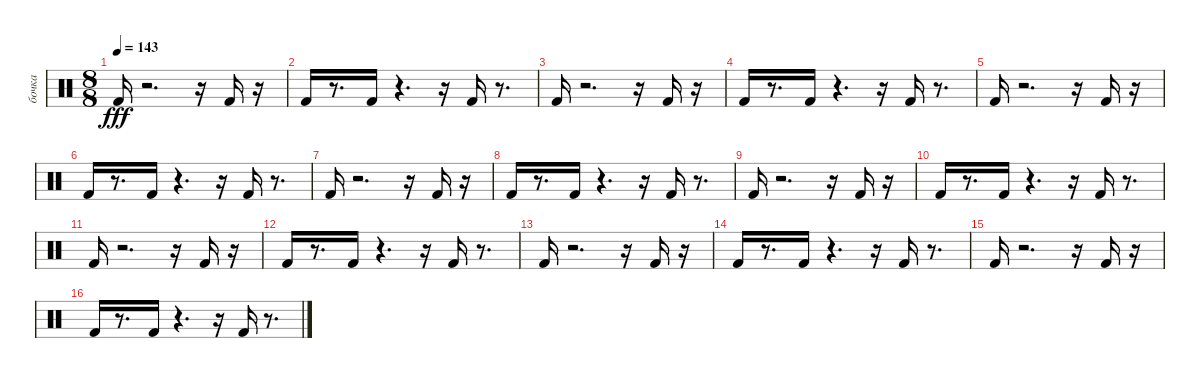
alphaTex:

\track ("бочка" "бочка") {instrument percussion}
\staff {score}
\articulation defaults
\ts (8 8)
\tempo 143
\clef neutral
\ks c "Kick (hit) 2".16{dy fff}
r.2{d} r.16 "Kick (hit) 2".16 r.16 |
"Kick (hit) 2".16 r.8{d} "Kick (hit) 2".16 r.4{d} r.16 "Kick (hit) 2".16 r.8{d} |
"Kick (hit) 2".16 r.2{d} r.16 "Kick (hit) 2".16 r.16 |
"Kick (hit) 2".16 r.8{d} "Kick (hit) 2".16 r.4{d} r.16 "Kick (hit) 2".16 r.8{d} |
"Kick (hit) 2".16 r.2{d} r.16 "Kick (hit) 2".16 r.16 |
"Kick (hit) 2".16 r.8{d} "Kick (hit) 2".16 r.4{d} r.16 "Kick (hit) 2".16 r.8{d} |
"Kick (hit) 2".16 r.2{d} r.16 "Kick (hit) 2".16 r.16 |
"Kick (hit) 2".16 r.8{d} "Kick (hit) 2".16 r.4{d} r.16 "Kick (hit) 2".16 r.8{d} |
"Kick (hit) 2".16 r.2{d} r.16 "Kick (hit) 2".16 r.16 |
"Kick (hit) 2".16 r.8{d} "Kick (hit) 2".16 r.4{d} r.16 "Kick (hit) 2".16 r.8{d} |
"Kick (hit) 2".16 r.2{d} r.16 "Kick (hit) 2".16 r.16 |
"Kick (hit) 2".16 r.8{d} "Kick (hit) 2".16 r.4{d} r.16 "Kick (hit) 2".16 r.8{d} |
"Kick (hit) 2".16 r.2{d} r.16 "Kick (hit) 2".16 r.16 |
"Kick (hit) 2".16 r.8{d} "Kick (hit) 2".16 r.4{d} r.16 "Kick (hit) 2".16 r.8{d} |
"Kick (hit) 2".16 r.2{d} r.16 "Kick (hit) 2".16 r.16 |
"Kick (hit) 2".16 r.8{d} "Kick (hit) 2".16 r.4{d} r.16 "Kick (hit) 2".16 r.8{d}
